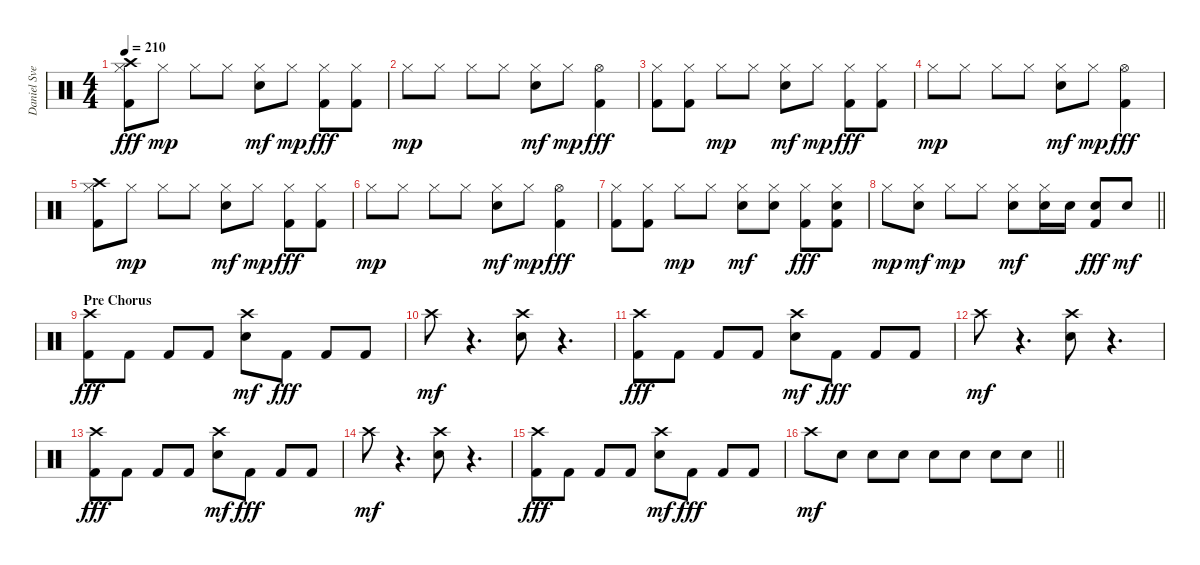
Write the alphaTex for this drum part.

\track ("Daniel Svensson" "Daniel Sve") {instrument percussion}
\staff {score}
\articulation defaults
\ts (4 4)
\tempo 210
\clef neutral
\ks c
("Crash high (hit)" "Hi-Hat (closed)" "Kick (hit) 2").8{dy fff} "Hi-Hat (closed)".8{dy mp} "Hi-Hat (closed)".8 "Hi-Hat (closed)".8 ("Hi-Hat (closed)" "Electric Snare (hit)").8{dy mf} "Hi-Hat (closed)".8{dy mp} ("Hi-Hat (closed)" "Kick (hit) 2").8{dy fff} ("Hi-Hat (closed)" "Kick (hit) 2").8 |
"Hi-Hat (closed)".8{dy mp} "Hi-Hat (closed)".8 "Hi-Hat (closed)".8 "Hi-Hat (closed)".8 ("Hi-Hat (closed)" "Electric Snare (hit)").8{dy mf} "Hi-Hat (closed)".8{dy mp} ("Hi-Hat (open)" "Kick (hit) 2").4{dy fff} |
("Hi-Hat (closed)" "Kick (hit) 2").8 ("Hi-Hat (closed)" "Kick (hit) 2").8 "Hi-Hat (closed)".8{dy mp} "Hi-Hat (closed)".8 ("Hi-Hat (closed)" "Electric Snare (hit)").8{dy mf} "Hi-Hat (closed)".8{dy mp} ("Hi-Hat (closed)" "Kick (hit) 2").8{dy fff} ("Hi-Hat (closed)" "Kick (hit) 2").8 |
"Hi-Hat (closed)".8{dy mp} "Hi-Hat (closed)".8 "Hi-Hat (closed)".8 "Hi-Hat (closed)".8 ("Hi-Hat (closed)" "Electric Snare (hit)").8{dy mf} "Hi-Hat (closed)".8{dy mp} ("Hi-Hat (open)" "Kick (hit) 2").4{dy fff} |
("Crash high (hit)" "Hi-Hat (closed)" "Kick (hit) 2").8 "Hi-Hat (closed)".8{dy mp} "Hi-Hat (closed)".8 "Hi-Hat (closed)".8 ("Hi-Hat (closed)" "Electric Snare (hit)").8{dy mf} "Hi-Hat (closed)".8{dy mp} ("Hi-Hat (closed)" "Kick (hit) 2").8{dy fff} ("Hi-Hat (closed)" "Kick (hit) 2").8 |
"Hi-Hat (closed)".8{dy mp} "Hi-Hat (closed)".8 "Hi-Hat (closed)".8 "Hi-Hat (closed)".8 ("Hi-Hat (closed)" "Electric Snare (hit)").8{dy mf} "Hi-Hat (closed)".8{dy mp} ("Hi-Hat (open)" "Kick (hit) 2").4{dy fff} |
("Hi-Hat (closed)" "Kick (hit) 2").8 ("Hi-Hat (closed)" "Kick (hit) 2").8 "Hi-Hat (closed)".8{dy mp} "Hi-Hat (closed)".8 ("Hi-Hat (closed)" "Electric Snare (hit)").8{dy mf} ("Hi-Hat (closed)" "Electric Snare (hit)").8 ("Hi-Hat (closed)" "Kick (hit) 2").8{dy fff} ("Hi-Hat (closed)" "Electric Snare (hit)" "Kick (hit) 2").8 |
\barLineRight lightlight "Hi-Hat (closed)".8{dy mp}
("Hi-Hat (closed)" "Electric Snare (hit)").8{dy mf} "Hi-Hat (closed)".8{dy mp} "Hi-Hat (closed)".8 ("Hi-Hat (closed)" "Electric Snare (hit)").8{dy mf} ("Hi-Hat (closed)" "Electric Snare (hit)").16 "Electric Snare (hit)".16 ("Electric Snare (hit)" "Kick (hit) 2").8{dy fff} "Electric Snare (hit)".8{dy mf} |
\section ("" "Pre Chorus")
("Crash high (hit)" "Kick (hit) 2").8{dy fff} "Kick (hit) 2".8 "Kick (hit) 2".8 "Kick (hit) 2".8 ("Crash high (hit)" "Electric Snare (hit)").8{dy mf} "Kick (hit) 2".8{dy fff} "Kick (hit) 2".8 "Kick (hit) 2".8 |
"Crash high (hit)".8{dy mf} r.4{d} ("Crash high (hit)" "Electric Snare (hit)").8 r.4{d} |
("Crash high (hit)" "Kick (hit) 2").8{dy fff} "Kick (hit) 2".8 "Kick (hit) 2".8 "Kick (hit) 2".8 ("Crash high (hit)" "Electric Snare (hit)").8{dy mf} "Kick (hit) 2".8{dy fff} "Kick (hit) 2".8 "Kick (hit) 2".8 |
"Crash high (hit)".8{dy mf} r.4{d} ("Crash high (hit)" "Electric Snare (hit)").8 r.4{d} |
("Crash high (hit)" "Kick (hit) 2").8{dy fff} "Kick (hit) 2".8 "Kick (hit) 2".8 "Kick (hit) 2".8 ("Crash high (hit)" "Electric Snare (hit)").8{dy mf} "Kick (hit) 2".8{dy fff} "Kick (hit) 2".8 "Kick (hit) 2".8 |
"Crash high (hit)".8{dy mf} r.4{d} ("Crash high (hit)" "Electric Snare (hit)").8 r.4{d} |
("Crash high (hit)" "Kick (hit) 2").8{dy fff} "Kick (hit) 2".8 "Kick (hit) 2".8 "Kick (hit) 2".8 ("Crash high (hit)" "Electric Snare (hit)").8{dy mf} "Kick (hit) 2".8{dy fff} "Kick (hit) 2".8 "Kick (hit) 2".8 |
\barLineRight lightlight "Crash high (hit)".8{dy mf} "Electric Snare (hit)".8 "Electric Snare (hit)".8 "Electric Snare (hit)".8 "Electric Snare (hit)".8 "Electric Snare (hit)".8 "Electric Snare (hit)".8 "Electric Snare (hit)".8
